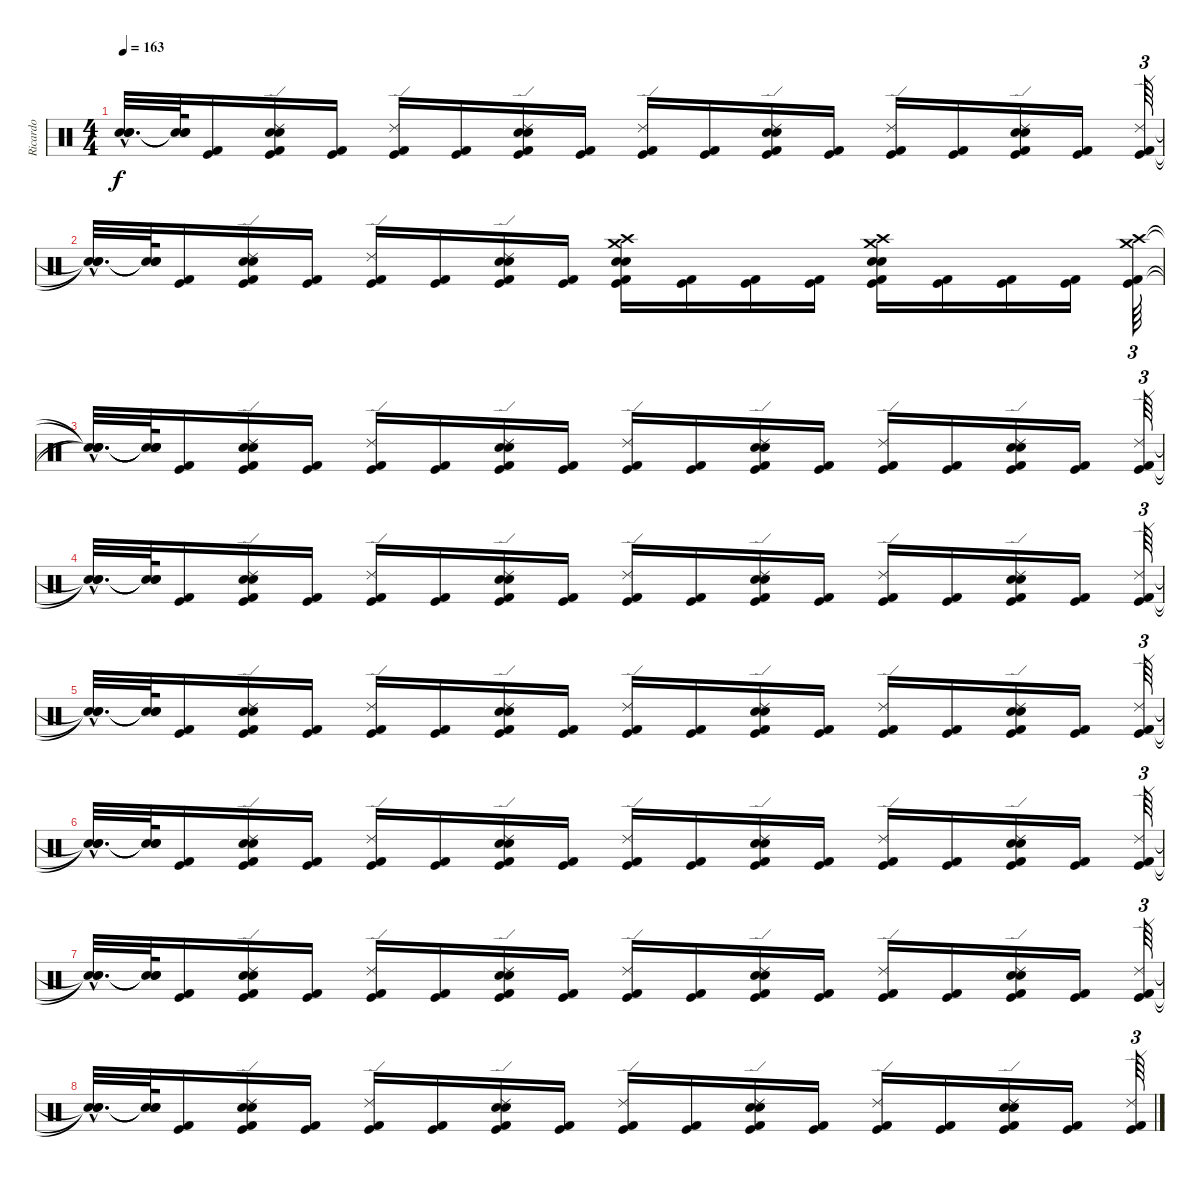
\track ("Ricardo" "Ricardo") {instrument percussion}
\staff {score}
\articulation defaults
\ts (4 4)
\tempo 163
\clef neutral
\ks c
("Snare (hit)"{hac t} "Snare (hit)"{hac t} "Snare (hit)"{hac t}).32{d dy f} ("Snare (hit)"{t} "Snare (hit)"{t} "Snare (hit)"{t}).64 ("Kick (hit) 2" "Kick (hit)").16 ("Ride (edge) 2" "Electric Snare (hit)" "Snare (hit) 2" "Kick (hit) 2" "Kick (hit)").16 ("Kick (hit) 2" "Kick (hit)").16 ("Ride (edge) 2" "Kick (hit) 2" "Kick (hit)").16 ("Kick (hit) 2" "Kick (hit)").16 ("Ride (edge) 2" "Electric Snare (hit)" "Snare (hit) 2" "Kick (hit) 2" "Kick (hit)").16 ("Kick (hit) 2" "Kick (hit)").16 ("Ride (edge) 2" "Kick (hit) 2" "Kick (hit)").16 ("Kick (hit) 2" "Kick (hit)").16 ("Ride (edge) 2" "Electric Snare (hit)" "Snare (hit) 2" "Kick (hit) 2" "Kick (hit)").16 ("Kick (hit) 2" "Kick (hit)").16 ("Ride (edge) 2" "Kick (hit) 2" "Kick (hit)").16 ("Kick (hit) 2" "Kick (hit)").16 ("Ride (edge) 2" "Electric Snare (hit)" "Snare (hit) 2" "Kick (hit) 2" "Kick (hit)").16 ("Kick (hit) 2" "Kick (hit)").16 ("Ride (edge) 2" "Kick (hit) 2" "Kick (hit)").64{tu (3 2)} |
("Snare (hit)"{hac t} "Snare (hit)"{hac t} "Snare (hit)"{hac t}).32{d} ("Snare (hit)"{t} "Snare (hit)"{t} "Snare (hit)"{t}).64 ("Kick (hit) 2" "Kick (hit)").16 ("Ride (edge) 2" "Electric Snare (hit)" "Snare (hit) 2" "Kick (hit) 2" "Kick (hit)").16 ("Kick (hit) 2" "Kick (hit)").16 ("Ride (edge) 2" "Kick (hit) 2" "Kick (hit)").16 ("Kick (hit) 2" "Kick (hit)").16 ("Ride (edge) 2" "Electric Snare (hit)" "Snare (hit) 2" "Kick (hit) 2" "Kick (hit)").16 ("Kick (hit) 2" "Kick (hit)").16 ("Crash high (hit)" "Crash medium (hit)" "Snare (hit) 2" "Electric Snare (hit)" "Kick (hit) 2" "Kick (hit)").16 ("Kick (hit) 2" "Kick (hit)").16 ("Kick (hit) 2" "Kick (hit)").16 ("Kick (hit) 2" "Kick (hit)").16 ("Snare (hit) 2" "Electric Snare (hit)" "Crash medium (hit)" "Crash high (hit)" "Kick (hit) 2" "Kick (hit)").16 ("Kick (hit) 2" "Kick (hit)").16 ("Kick (hit) 2" "Kick (hit)").16 ("Kick (hit) 2" "Kick (hit)").16 ("Crash high (hit)" "Crash medium (hit)" "Kick (hit) 2" "Kick (hit)").64{tu (3 2)} |
("Snare (hit)"{hac t} "Snare (hit)"{hac t} "Snare (hit)"{hac t} "Snare (hit)"{hac t}).32{d} ("Snare (hit)"{t} "Snare (hit)"{t} "Snare (hit)"{t} "Snare (hit)"{t}).64 ("Kick (hit) 2" "Kick (hit)").16 ("Ride (edge) 2" "Electric Snare (hit)" "Snare (hit) 2" "Kick (hit) 2" "Kick (hit)").16 ("Kick (hit) 2" "Kick (hit)").16 ("Ride (edge) 2" "Kick (hit) 2" "Kick (hit)").16 ("Kick (hit) 2" "Kick (hit)").16 ("Ride (edge) 2" "Electric Snare (hit)" "Snare (hit) 2" "Kick (hit) 2" "Kick (hit)").16 ("Kick (hit) 2" "Kick (hit)").16 ("Ride (edge) 2" "Kick (hit) 2" "Kick (hit)").16 ("Kick (hit) 2" "Kick (hit)").16 ("Ride (edge) 2" "Electric Snare (hit)" "Snare (hit) 2" "Kick (hit) 2" "Kick (hit)").16 ("Kick (hit) 2" "Kick (hit)").16 ("Ride (edge) 2" "Kick (hit) 2" "Kick (hit)").16 ("Kick (hit) 2" "Kick (hit)").16 ("Ride (edge) 2" "Electric Snare (hit)" "Snare (hit) 2" "Kick (hit) 2" "Kick (hit)").16 ("Kick (hit) 2" "Kick (hit)").16 ("Ride (edge) 2" "Kick (hit) 2" "Kick (hit)").64{tu (3 2)} |
("Snare (hit)"{hac t} "Snare (hit)"{hac t} "Snare (hit)"{hac t}).32{d} ("Snare (hit)"{t} "Snare (hit)"{t} "Snare (hit)"{t}).64 ("Kick (hit) 2" "Kick (hit)").16 ("Ride (edge) 2" "Electric Snare (hit)" "Snare (hit) 2" "Kick (hit) 2" "Kick (hit)").16 ("Kick (hit) 2" "Kick (hit)").16 ("Ride (edge) 2" "Kick (hit) 2" "Kick (hit)").16 ("Kick (hit) 2" "Kick (hit)").16 ("Ride (edge) 2" "Electric Snare (hit)" "Snare (hit) 2" "Kick (hit) 2" "Kick (hit)").16 ("Kick (hit) 2" "Kick (hit)").16 ("Ride (edge) 2" "Kick (hit) 2" "Kick (hit)").16 ("Kick (hit) 2" "Kick (hit)").16 ("Ride (edge) 2" "Electric Snare (hit)" "Snare (hit) 2" "Kick (hit) 2" "Kick (hit)").16 ("Kick (hit) 2" "Kick (hit)").16 ("Ride (edge) 2" "Kick (hit) 2" "Kick (hit)").16 ("Kick (hit) 2" "Kick (hit)").16 ("Ride (edge) 2" "Electric Snare (hit)" "Snare (hit) 2" "Kick (hit) 2" "Kick (hit)").16 ("Kick (hit) 2" "Kick (hit)").16 ("Ride (edge) 2" "Kick (hit) 2" "Kick (hit)").64{tu (3 2)} |
("Snare (hit)"{hac t} "Snare (hit)"{hac t} "Snare (hit)"{hac t}).32{d} ("Snare (hit)"{t} "Snare (hit)"{t} "Snare (hit)"{t}).64 ("Kick (hit) 2" "Kick (hit)").16 ("Ride (edge) 2" "Electric Snare (hit)" "Snare (hit) 2" "Kick (hit) 2" "Kick (hit)").16 ("Kick (hit) 2" "Kick (hit)").16 ("Ride (edge) 2" "Kick (hit) 2" "Kick (hit)").16 ("Kick (hit) 2" "Kick (hit)").16 ("Ride (edge) 2" "Electric Snare (hit)" "Snare (hit) 2" "Kick (hit) 2" "Kick (hit)").16 ("Kick (hit) 2" "Kick (hit)").16 ("Ride (edge) 2" "Kick (hit) 2" "Kick (hit)").16 ("Kick (hit) 2" "Kick (hit)").16 ("Ride (edge) 2" "Electric Snare (hit)" "Snare (hit) 2" "Kick (hit) 2" "Kick (hit)").16 ("Kick (hit) 2" "Kick (hit)").16 ("Ride (edge) 2" "Kick (hit) 2" "Kick (hit)").16 ("Kick (hit) 2" "Kick (hit)").16 ("Ride (edge) 2" "Electric Snare (hit)" "Snare (hit) 2" "Kick (hit) 2" "Kick (hit)").16 ("Kick (hit) 2" "Kick (hit)").16 ("Ride (edge) 2" "Kick (hit) 2" "Kick (hit)").64{tu (3 2)} |
("Snare (hit)"{hac t} "Snare (hit)"{hac t} "Snare (hit)"{hac t}).32{d} ("Snare (hit)"{t} "Snare (hit)"{t} "Snare (hit)"{t}).64 ("Kick (hit) 2" "Kick (hit)").16 ("Ride (edge) 2" "Electric Snare (hit)" "Snare (hit) 2" "Kick (hit) 2" "Kick (hit)").16 ("Kick (hit) 2" "Kick (hit)").16 ("Ride (edge) 2" "Kick (hit) 2" "Kick (hit)").16 ("Kick (hit) 2" "Kick (hit)").16 ("Ride (edge) 2" "Electric Snare (hit)" "Snare (hit) 2" "Kick (hit) 2" "Kick (hit)").16 ("Kick (hit) 2" "Kick (hit)").16 ("Ride (edge) 2" "Kick (hit) 2" "Kick (hit)").16 ("Kick (hit) 2" "Kick (hit)").16 ("Ride (edge) 2" "Electric Snare (hit)" "Snare (hit) 2" "Kick (hit) 2" "Kick (hit)").16 ("Kick (hit) 2" "Kick (hit)").16 ("Ride (edge) 2" "Kick (hit) 2" "Kick (hit)").16 ("Kick (hit) 2" "Kick (hit)").16 ("Ride (edge) 2" "Electric Snare (hit)" "Snare (hit) 2" "Kick (hit) 2" "Kick (hit)").16 ("Kick (hit) 2" "Kick (hit)").16 ("Ride (edge) 2" "Kick (hit) 2" "Kick (hit)").64{tu (3 2)} |
("Snare (hit)"{hac t} "Snare (hit)"{hac t} "Snare (hit)"{hac t}).32{d} ("Snare (hit)"{t} "Snare (hit)"{t} "Snare (hit)"{t}).64 ("Kick (hit) 2" "Kick (hit)").16 ("Ride (edge) 2" "Electric Snare (hit)" "Snare (hit) 2" "Kick (hit) 2" "Kick (hit)").16 ("Kick (hit) 2" "Kick (hit)").16 ("Ride (edge) 2" "Kick (hit) 2" "Kick (hit)").16 ("Kick (hit) 2" "Kick (hit)").16 ("Ride (edge) 2" "Electric Snare (hit)" "Snare (hit) 2" "Kick (hit) 2" "Kick (hit)").16 ("Kick (hit) 2" "Kick (hit)").16 ("Ride (edge) 2" "Kick (hit) 2" "Kick (hit)").16 ("Kick (hit) 2" "Kick (hit)").16 ("Ride (edge) 2" "Electric Snare (hit)" "Snare (hit) 2" "Kick (hit) 2" "Kick (hit)").16 ("Kick (hit) 2" "Kick (hit)").16 ("Ride (edge) 2" "Kick (hit) 2" "Kick (hit)").16 ("Kick (hit) 2" "Kick (hit)").16 ("Ride (edge) 2" "Electric Snare (hit)" "Snare (hit) 2" "Kick (hit) 2" "Kick (hit)").16 ("Kick (hit) 2" "Kick (hit)").16 ("Ride (edge) 2" "Kick (hit) 2" "Kick (hit)").64{tu (3 2)} |
("Snare (hit)"{hac t} "Snare (hit)"{hac t} "Snare (hit)"{hac t}).32{d} ("Snare (hit)"{t} "Snare (hit)"{t} "Snare (hit)"{t}).64 ("Kick (hit) 2" "Kick (hit)").16 ("Ride (edge) 2" "Electric Snare (hit)" "Snare (hit) 2" "Kick (hit) 2" "Kick (hit)").16 ("Kick (hit) 2" "Kick (hit)").16 ("Ride (edge) 2" "Kick (hit) 2" "Kick (hit)").16 ("Kick (hit) 2" "Kick (hit)").16 ("Ride (edge) 2" "Electric Snare (hit)" "Snare (hit) 2" "Kick (hit) 2" "Kick (hit)").16 ("Kick (hit) 2" "Kick (hit)").16 ("Ride (edge) 2" "Kick (hit) 2" "Kick (hit)").16 ("Kick (hit) 2" "Kick (hit)").16 ("Ride (edge) 2" "Electric Snare (hit)" "Snare (hit) 2" "Kick (hit) 2" "Kick (hit)").16 ("Kick (hit) 2" "Kick (hit)").16 ("Ride (edge) 2" "Kick (hit) 2" "Kick (hit)").16 ("Kick (hit) 2" "Kick (hit)").16 ("Ride (edge) 2" "Electric Snare (hit)" "Snare (hit) 2" "Kick (hit) 2" "Kick (hit)").16 ("Kick (hit) 2" "Kick (hit)").16 ("Ride (edge) 2" "Kick (hit) 2" "Kick (hit)").64{tu (3 2)}
